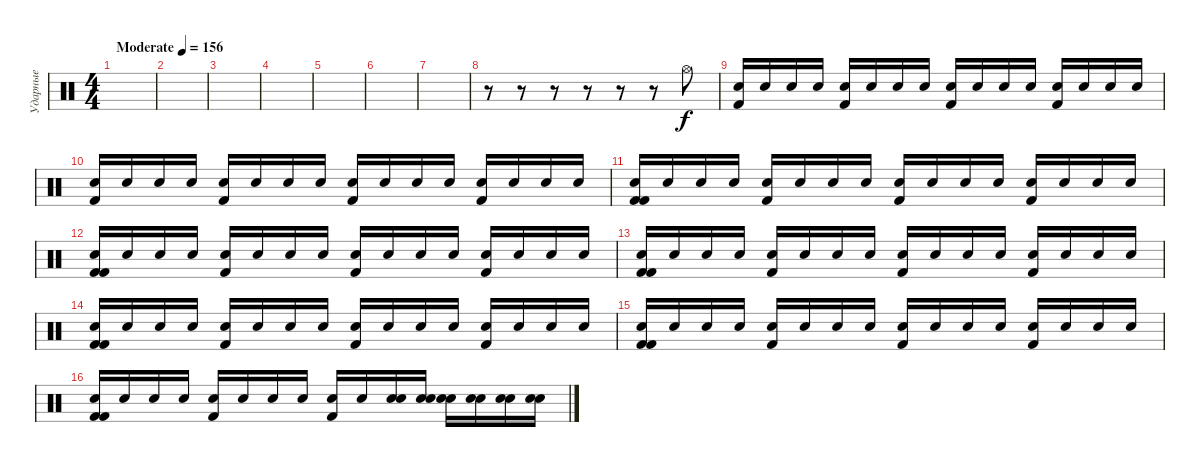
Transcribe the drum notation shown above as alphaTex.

\track ("Ударные" "Ударные") {instrument percussion}
\staff {score}
\articulation defaults
\ts (4 4)
\tempo (156 "Moderate")
\clef neutral
\ks c
|
|
|
|
|
|
|
r.8 r.8 r.8 r.8 r.8 r.8 "Hi-Hat (open)".8 |
("Kick (hit) 2" "Electric Snare (hit)").16 "Electric Snare (hit)".16 "Electric Snare (hit)".16 "Electric Snare (hit)".16 ("Kick (hit) 2" "Electric Snare (hit)").16 "Electric Snare (hit)".16 "Electric Snare (hit)".16 "Electric Snare (hit)".16 ("Kick (hit) 2" "Electric Snare (hit)").16 "Electric Snare (hit)".16 "Electric Snare (hit)".16 "Electric Snare (hit)".16 ("Kick (hit) 2" "Electric Snare (hit)").16 "Electric Snare (hit)".16 "Electric Snare (hit)".16 "Electric Snare (hit)".16 |
("Kick (hit) 2" "Electric Snare (hit)").16 "Electric Snare (hit)".16 "Electric Snare (hit)".16 "Electric Snare (hit)".16 ("Kick (hit) 2" "Electric Snare (hit)").16 "Electric Snare (hit)".16 "Electric Snare (hit)".16 "Electric Snare (hit)".16 ("Kick (hit) 2" "Electric Snare (hit)").16 "Electric Snare (hit)".16 "Electric Snare (hit)".16 "Electric Snare (hit)".16 ("Kick (hit) 2" "Electric Snare (hit)").16 "Electric Snare (hit)".16 "Electric Snare (hit)".16 "Electric Snare (hit)".16 |
("Kick (hit) 2" "Kick (hit) 2" "Electric Snare (hit)").16 "Electric Snare (hit)".16 "Electric Snare (hit)".16 "Electric Snare (hit)".16 ("Kick (hit) 2" "Electric Snare (hit)").16 "Electric Snare (hit)".16 "Electric Snare (hit)".16 "Electric Snare (hit)".16 ("Kick (hit) 2" "Electric Snare (hit)").16 "Electric Snare (hit)".16 "Electric Snare (hit)".16 "Electric Snare (hit)".16 ("Kick (hit) 2" "Electric Snare (hit)").16 "Electric Snare (hit)".16 "Electric Snare (hit)".16 "Electric Snare (hit)".16 |
("Kick (hit) 2" "Kick (hit) 2" "Electric Snare (hit)").16 "Electric Snare (hit)".16 "Electric Snare (hit)".16 "Electric Snare (hit)".16 ("Kick (hit) 2" "Electric Snare (hit)").16 "Electric Snare (hit)".16 "Electric Snare (hit)".16 "Electric Snare (hit)".16 ("Kick (hit) 2" "Electric Snare (hit)").16 "Electric Snare (hit)".16 "Electric Snare (hit)".16 "Electric Snare (hit)".16 ("Kick (hit) 2" "Electric Snare (hit)").16 "Electric Snare (hit)".16 "Electric Snare (hit)".16 "Electric Snare (hit)".16 |
("Kick (hit) 2" "Kick (hit) 2" "Electric Snare (hit)").16 "Electric Snare (hit)".16 "Electric Snare (hit)".16 "Electric Snare (hit)".16 ("Kick (hit) 2" "Electric Snare (hit)").16 "Electric Snare (hit)".16 "Electric Snare (hit)".16 "Electric Snare (hit)".16 ("Kick (hit) 2" "Electric Snare (hit)").16 "Electric Snare (hit)".16 "Electric Snare (hit)".16 "Electric Snare (hit)".16 ("Kick (hit) 2" "Electric Snare (hit)").16 "Electric Snare (hit)".16 "Electric Snare (hit)".16 "Electric Snare (hit)".16 |
("Kick (hit) 2" "Kick (hit) 2" "Electric Snare (hit)").16 "Electric Snare (hit)".16 "Electric Snare (hit)".16 "Electric Snare (hit)".16 ("Kick (hit) 2" "Electric Snare (hit)").16 "Electric Snare (hit)".16 "Electric Snare (hit)".16 "Electric Snare (hit)".16 ("Kick (hit) 2" "Electric Snare (hit)").16 "Electric Snare (hit)".16 "Electric Snare (hit)".16 "Electric Snare (hit)".16 ("Kick (hit) 2" "Electric Snare (hit)").16 "Electric Snare (hit)".16 "Electric Snare (hit)".16 "Electric Snare (hit)".16 |
("Kick (hit) 2" "Kick (hit) 2" "Electric Snare (hit)").16 "Electric Snare (hit)".16 "Electric Snare (hit)".16 "Electric Snare (hit)".16 ("Kick (hit) 2" "Electric Snare (hit)").16 "Electric Snare (hit)".16 "Electric Snare (hit)".16 "Electric Snare (hit)".16 ("Kick (hit) 2" "Electric Snare (hit)").16 "Electric Snare (hit)".16 "Electric Snare (hit)".16 "Electric Snare (hit)".16 ("Kick (hit) 2" "Electric Snare (hit)").16 "Electric Snare (hit)".16 "Electric Snare (hit)".16 "Electric Snare (hit)".16 |
("Kick (hit) 2" "Kick (hit) 2" "Electric Snare (hit)").16 "Electric Snare (hit)".16 "Electric Snare (hit)".16 "Electric Snare (hit)".16 ("Kick (hit) 2" "Electric Snare (hit)").16 "Electric Snare (hit)".16 "Electric Snare (hit)".16 "Electric Snare (hit)".16 ("Kick (hit) 2" "Electric Snare (hit)").16 "Electric Snare (hit)".16 ("Electric Snare (hit)" "Snare (hit) 2").16 ("Electric Snare (hit)" "Snare (hit) 2").16 ("Electric Snare (hit)" "Snare (hit) 2").16 ("Electric Snare (hit)" "Snare (hit) 2").16 ("Electric Snare (hit)" "Snare (hit) 2").16 ("Electric Snare (hit)" "Snare (hit) 2").16
